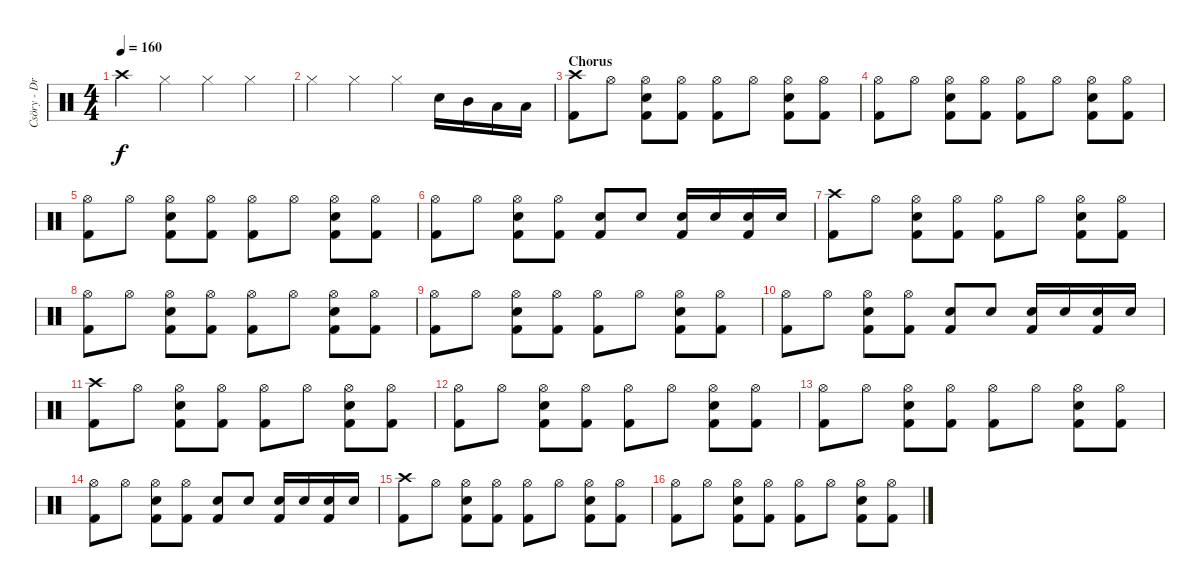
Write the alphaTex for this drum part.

\track ("Csöry - DrumZ" "Csöry - Dr") {instrument percussion}
\staff {score}
\articulation defaults
\ts (4 4)
\tempo 160
\clef neutral
\ks c "Crash high (hit)".4{dy f} "Hi-Hat (closed)".4 "Hi-Hat (closed)".4 "Hi-Hat (closed)".4
|
"Hi-Hat (closed)".4 "Hi-Hat (closed)".4 "Hi-Hat (closed)".4 "Snare (hit) 2".16 "Mid Tom (hit)".16 "Low Tom (hit)".16 "Low Floor Tom (hit)".16 |
\section ("" "Chorus")
("Crash high (hit)" "Kick (hit) 2").8 "Hi-Hat (open)".8 ("Hi-Hat (open)" "Snare (hit) 2" "Kick (hit) 2").8 ("Hi-Hat (open)" "Kick (hit) 2").8 ("Hi-Hat (open)" "Kick (hit) 2").8 "Hi-Hat (open)".8 ("Hi-Hat (open)" "Snare (hit) 2" "Kick (hit) 2").8 ("Hi-Hat (open)" "Kick (hit) 2").8 |
("Hi-Hat (open)" "Kick (hit) 2").8 "Hi-Hat (open)".8 ("Hi-Hat (open)" "Snare (hit) 2" "Kick (hit) 2").8 ("Hi-Hat (open)" "Kick (hit) 2").8 ("Hi-Hat (open)" "Kick (hit) 2").8 "Hi-Hat (open)".8 ("Hi-Hat (open)" "Snare (hit) 2" "Kick (hit) 2").8 ("Hi-Hat (open)" "Kick (hit) 2").8 |
("Hi-Hat (open)" "Kick (hit) 2").8 "Hi-Hat (open)".8 ("Hi-Hat (open)" "Snare (hit) 2" "Kick (hit) 2").8 ("Hi-Hat (open)" "Kick (hit) 2").8 ("Hi-Hat (open)" "Kick (hit) 2").8 "Hi-Hat (open)".8 ("Hi-Hat (open)" "Snare (hit) 2" "Kick (hit) 2").8 ("Hi-Hat (open)" "Kick (hit) 2").8 |
("Hi-Hat (open)" "Kick (hit) 2").8 "Hi-Hat (open)".8 ("Hi-Hat (open)" "Snare (hit) 2" "Kick (hit) 2").8 ("Hi-Hat (open)" "Kick (hit) 2").8 ("Snare (hit) 2" "Kick (hit) 2").8 "Snare (hit) 2".8 ("Snare (hit) 2" "Kick (hit) 2").16 "Snare (hit) 2".16 ("Snare (hit) 2" "Kick (hit) 2").16 "Snare (hit) 2".16 |
("Crash high (hit)" "Kick (hit) 2").8 "Hi-Hat (open)".8 ("Hi-Hat (open)" "Snare (hit) 2" "Kick (hit) 2").8 ("Hi-Hat (open)" "Kick (hit) 2").8 ("Hi-Hat (open)" "Kick (hit) 2").8 "Hi-Hat (open)".8 ("Hi-Hat (open)" "Snare (hit) 2" "Kick (hit) 2").8 ("Hi-Hat (open)" "Kick (hit) 2").8 |
("Hi-Hat (open)" "Kick (hit) 2").8 "Hi-Hat (open)".8 ("Hi-Hat (open)" "Snare (hit) 2" "Kick (hit) 2").8 ("Hi-Hat (open)" "Kick (hit) 2").8 ("Hi-Hat (open)" "Kick (hit) 2").8 "Hi-Hat (open)".8 ("Hi-Hat (open)" "Snare (hit) 2" "Kick (hit) 2").8 ("Hi-Hat (open)" "Kick (hit) 2").8 |
("Hi-Hat (open)" "Kick (hit) 2").8 "Hi-Hat (open)".8 ("Hi-Hat (open)" "Snare (hit) 2" "Kick (hit) 2").8 ("Hi-Hat (open)" "Kick (hit) 2").8 ("Hi-Hat (open)" "Kick (hit) 2").8 "Hi-Hat (open)".8 ("Hi-Hat (open)" "Snare (hit) 2" "Kick (hit) 2").8 ("Hi-Hat (open)" "Kick (hit) 2").8 |
("Hi-Hat (open)" "Kick (hit) 2").8 "Hi-Hat (open)".8 ("Hi-Hat (open)" "Snare (hit) 2" "Kick (hit) 2").8 ("Hi-Hat (open)" "Kick (hit) 2").8 ("Snare (hit) 2" "Kick (hit) 2").8 "Snare (hit) 2".8 ("Snare (hit) 2" "Kick (hit) 2").16 "Snare (hit) 2".16 ("Snare (hit) 2" "Kick (hit) 2").16 "Snare (hit) 2".16 |
("Crash high (hit)" "Kick (hit) 2").8 "Hi-Hat (open)".8 ("Hi-Hat (open)" "Snare (hit) 2" "Kick (hit) 2").8 ("Hi-Hat (open)" "Kick (hit) 2").8 ("Hi-Hat (open)" "Kick (hit) 2").8 "Hi-Hat (open)".8 ("Hi-Hat (open)" "Snare (hit) 2" "Kick (hit) 2").8 ("Hi-Hat (open)" "Kick (hit) 2").8 |
("Hi-Hat (open)" "Kick (hit) 2").8 "Hi-Hat (open)".8 ("Hi-Hat (open)" "Snare (hit) 2" "Kick (hit) 2").8 ("Hi-Hat (open)" "Kick (hit) 2").8 ("Hi-Hat (open)" "Kick (hit) 2").8 "Hi-Hat (open)".8 ("Hi-Hat (open)" "Snare (hit) 2" "Kick (hit) 2").8 ("Hi-Hat (open)" "Kick (hit) 2").8 |
("Hi-Hat (open)" "Kick (hit) 2").8 "Hi-Hat (open)".8 ("Hi-Hat (open)" "Snare (hit) 2" "Kick (hit) 2").8 ("Hi-Hat (open)" "Kick (hit) 2").8 ("Hi-Hat (open)" "Kick (hit) 2").8 "Hi-Hat (open)".8 ("Hi-Hat (open)" "Snare (hit) 2" "Kick (hit) 2").8 ("Hi-Hat (open)" "Kick (hit) 2").8 |
("Hi-Hat (open)" "Kick (hit) 2").8 "Hi-Hat (open)".8 ("Hi-Hat (open)" "Snare (hit) 2" "Kick (hit) 2").8 ("Hi-Hat (open)" "Kick (hit) 2").8 ("Snare (hit) 2" "Kick (hit) 2").8 "Snare (hit) 2".8 ("Snare (hit) 2" "Kick (hit) 2").16 "Snare (hit) 2".16 ("Snare (hit) 2" "Kick (hit) 2").16 "Snare (hit) 2".16 |
("Crash high (hit)" "Kick (hit) 2").8 "Hi-Hat (open)".8 ("Hi-Hat (open)" "Snare (hit) 2" "Kick (hit) 2").8 ("Hi-Hat (open)" "Kick (hit) 2").8 ("Hi-Hat (open)" "Kick (hit) 2").8 "Hi-Hat (open)".8 ("Hi-Hat (open)" "Snare (hit) 2" "Kick (hit) 2").8 ("Hi-Hat (open)" "Kick (hit) 2").8 |
("Hi-Hat (open)" "Kick (hit) 2").8 "Hi-Hat (open)".8 ("Hi-Hat (open)" "Snare (hit) 2" "Kick (hit) 2").8 ("Hi-Hat (open)" "Kick (hit) 2").8 ("Hi-Hat (open)" "Kick (hit) 2").8 "Hi-Hat (open)".8 ("Hi-Hat (open)" "Snare (hit) 2" "Kick (hit) 2").8 ("Hi-Hat (open)" "Kick (hit) 2").8
